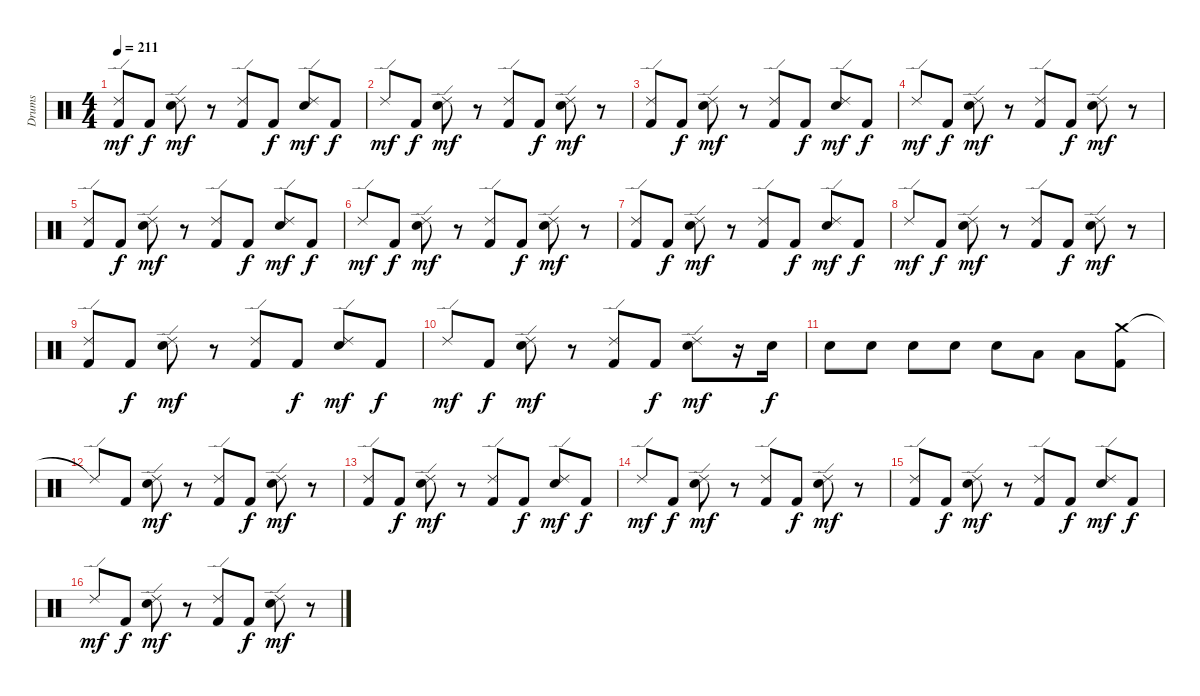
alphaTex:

\track ("Drums" "Drums") {instrument percussion}
\staff {score}
\articulation defaults
\ts (4 4)
\tempo 211
\clef neutral
\ks c
("Ride (edge) 2" "Kick (hit) 2").8{dy mf} "Kick (hit) 2".8{dy f} ("Ride (edge) 2" "Snare (hit) 2").8{dy mf} r.8 ("Ride (edge) 2" "Kick (hit) 2").8 "Kick (hit) 2".8{dy f} ("Ride (edge) 2" "Snare (hit) 2").8{dy mf} "Kick (hit) 2".8{dy f} |
"Ride (edge) 2".8{dy mf} "Kick (hit) 2".8{dy f} ("Ride (edge) 2" "Snare (hit) 2").8{dy mf} r.8 ("Ride (edge) 2" "Kick (hit) 2").8 "Kick (hit) 2".8{dy f} ("Ride (edge) 2" "Snare (hit) 2").8{dy mf} r.8 |
("Ride (edge) 2" "Kick (hit) 2").8 "Kick (hit) 2".8{dy f} ("Ride (edge) 2" "Snare (hit) 2").8{dy mf} r.8 ("Ride (edge) 2" "Kick (hit) 2").8 "Kick (hit) 2".8{dy f} ("Ride (edge) 2" "Snare (hit) 2").8{dy mf} "Kick (hit) 2".8{dy f} |
"Ride (edge) 2".8{dy mf} "Kick (hit) 2".8{dy f} ("Ride (edge) 2" "Snare (hit) 2").8{dy mf} r.8 ("Ride (edge) 2" "Kick (hit) 2").8 "Kick (hit) 2".8{dy f} ("Ride (edge) 2" "Snare (hit) 2").8{dy mf} r.8 |
("Ride (edge) 2" "Kick (hit) 2").8 "Kick (hit) 2".8{dy f} ("Ride (edge) 2" "Snare (hit) 2").8{dy mf} r.8 ("Ride (edge) 2" "Kick (hit) 2").8 "Kick (hit) 2".8{dy f} ("Ride (edge) 2" "Snare (hit) 2").8{dy mf} "Kick (hit) 2".8{dy f} |
"Ride (edge) 2".8{dy mf} "Kick (hit) 2".8{dy f} ("Ride (edge) 2" "Snare (hit) 2").8{dy mf} r.8 ("Ride (edge) 2" "Kick (hit) 2").8 "Kick (hit) 2".8{dy f} ("Ride (edge) 2" "Snare (hit) 2").8{dy mf} r.8 |
("Ride (edge) 2" "Kick (hit) 2").8 "Kick (hit) 2".8{dy f} ("Ride (edge) 2" "Snare (hit) 2").8{dy mf} r.8 ("Ride (edge) 2" "Kick (hit) 2").8 "Kick (hit) 2".8{dy f} ("Ride (edge) 2" "Snare (hit) 2").8{dy mf} "Kick (hit) 2".8{dy f} |
"Ride (edge) 2".8{dy mf} "Kick (hit) 2".8{dy f} ("Ride (edge) 2" "Snare (hit) 2").8{dy mf} r.8 ("Ride (edge) 2" "Kick (hit) 2").8 "Kick (hit) 2".8{dy f} ("Ride (edge) 2" "Snare (hit) 2").8{dy mf} r.8 |
("Ride (edge) 2" "Kick (hit) 2").8 "Kick (hit) 2".8{dy f} ("Ride (edge) 2" "Snare (hit) 2").8{dy mf} r.8 ("Ride (edge) 2" "Kick (hit) 2").8 "Kick (hit) 2".8{dy f} ("Ride (edge) 2" "Snare (hit) 2").8{dy mf} "Kick (hit) 2".8{dy f} |
"Ride (edge) 2".8{dy mf} "Kick (hit) 2".8{dy f} ("Ride (edge) 2" "Snare (hit) 2").8{dy mf} r.8 ("Ride (edge) 2" "Kick (hit) 2").8 "Kick (hit) 2".8{dy f} ("Ride (edge) 2" "Snare (hit) 2").8{dy mf} r.16 "Snare (hit) 2".16{dy f} |
"Snare (hit) 2".8 "Snare (hit) 2".8 "Snare (hit) 2".8 "Snare (hit) 2".8 "Snare (hit) 2".8 "Low Tom (hit)".8 "Low Tom (hit)".8 ("Crash medium (hit)" "Kick (hit) 2").8 |
"Ride (edge) 2"{t}.8 "Kick (hit) 2".8 ("Ride (edge) 2" "Snare (hit) 2").8{dy mf} r.8 ("Ride (edge) 2" "Kick (hit) 2").8 "Kick (hit) 2".8{dy f} ("Ride (edge) 2" "Snare (hit) 2").8{dy mf} r.8 |
("Ride (edge) 2" "Kick (hit) 2").8 "Kick (hit) 2".8{dy f} ("Ride (edge) 2" "Snare (hit) 2").8{dy mf} r.8 ("Ride (edge) 2" "Kick (hit) 2").8 "Kick (hit) 2".8{dy f} ("Ride (edge) 2" "Snare (hit) 2").8{dy mf} "Kick (hit) 2".8{dy f} |
"Ride (edge) 2".8{dy mf} "Kick (hit) 2".8{dy f} ("Ride (edge) 2" "Snare (hit) 2").8{dy mf} r.8 ("Ride (edge) 2" "Kick (hit) 2").8 "Kick (hit) 2".8{dy f} ("Ride (edge) 2" "Snare (hit) 2").8{dy mf} r.8 |
("Ride (edge) 2" "Kick (hit) 2").8 "Kick (hit) 2".8{dy f} ("Ride (edge) 2" "Snare (hit) 2").8{dy mf} r.8 ("Ride (edge) 2" "Kick (hit) 2").8 "Kick (hit) 2".8{dy f} ("Ride (edge) 2" "Snare (hit) 2").8{dy mf} "Kick (hit) 2".8{dy f} |
"Ride (edge) 2".8{dy mf} "Kick (hit) 2".8{dy f} ("Ride (edge) 2" "Snare (hit) 2").8{dy mf} r.8 ("Ride (edge) 2" "Kick (hit) 2").8 "Kick (hit) 2".8{dy f} ("Ride (edge) 2" "Snare (hit) 2").8{dy mf} r.8
